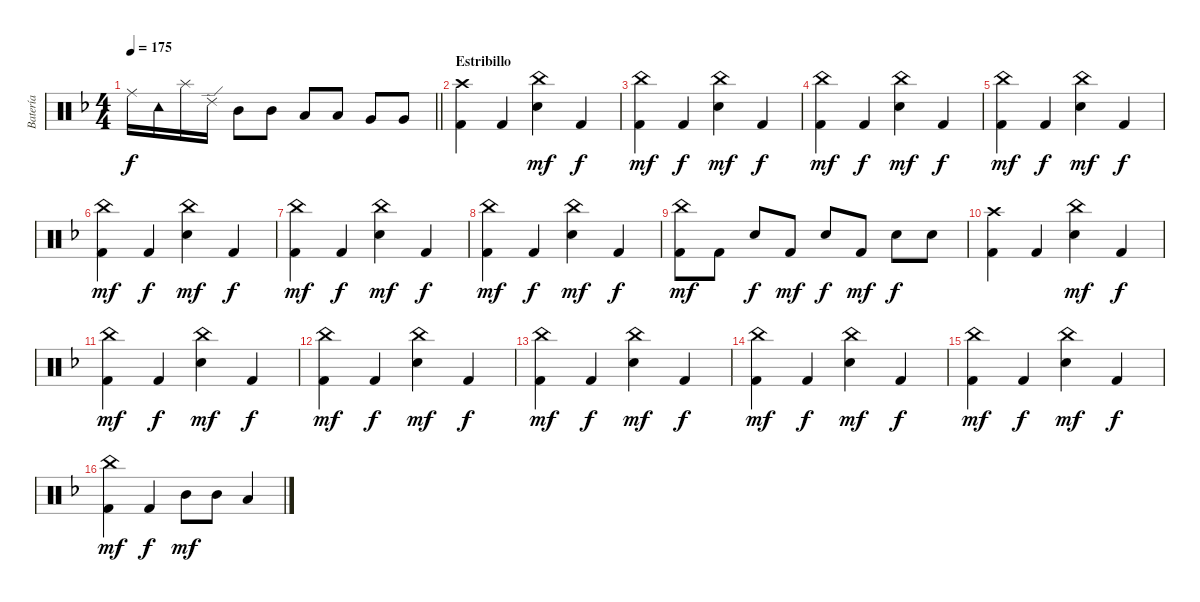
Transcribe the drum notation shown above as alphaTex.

\track ("Batería" "Batería") {instrument percussion}
\staff {score}
\articulation defaults
\ts (4 4)
\tempo 175
\clef neutral
\barLineRight lightlight
\ks dminor "Ride (middle)".16{dy f} "Tambourine (hit)".16 "Splash (hit)".16 "Ride (edge) 2".16 "Mid Tom (hit)".8 "Mid Tom (hit)".8 "Low Tom (hit)".8 "Low Tom (hit)".8 "Very Low Tom (hit)".8 "Very Low Tom (hit)".8
|
\section ("" "Estribillo")
("Crash high (hit)" "Kick (hit) 2").4 "Kick (hit) 2".4 ("China (hit)" "Snare (hit) 2").4{dy mf} "Kick (hit) 2".4{dy f} |
("China (hit)" "Kick (hit) 2").4{dy mf} "Kick (hit) 2".4{dy f} ("China (hit)" "Snare (hit) 2").4{dy mf} "Kick (hit) 2".4{dy f} |
("China (hit)" "Kick (hit) 2").4{dy mf} "Kick (hit) 2".4{dy f} ("China (hit)" "Snare (hit) 2").4{dy mf} "Kick (hit) 2".4{dy f} |
("China (hit)" "Kick (hit) 2").4{dy mf} "Kick (hit) 2".4{dy f} ("China (hit)" "Snare (hit) 2").4{dy mf} "Kick (hit) 2".4{dy f} |
("China (hit)" "Kick (hit) 2").4{dy mf} "Kick (hit) 2".4{dy f} ("China (hit)" "Snare (hit) 2").4{dy mf} "Kick (hit) 2".4{dy f} |
("China (hit)" "Kick (hit) 2").4{dy mf} "Kick (hit) 2".4{dy f} ("China (hit)" "Snare (hit) 2").4{dy mf} "Kick (hit) 2".4{dy f} |
("China (hit)" "Kick (hit) 2").4{dy mf} "Kick (hit) 2".4{dy f} ("China (hit)" "Snare (hit) 2").4{dy mf} "Kick (hit) 2".4{dy f} |
("China (hit)" "Kick (hit) 2").8{dy mf} "Kick (hit) 2".8 "Snare (hit) 2".8{dy f} "Kick (hit) 2".8{dy mf} "Snare (hit) 2".8{dy f} "Kick (hit) 2".8{dy mf} "Snare (hit) 2".8{dy f} "Snare (hit) 2".8 |
("Crash high (hit)" "Kick (hit) 2").4 "Kick (hit) 2".4 ("China (hit)" "Snare (hit) 2").4{dy mf} "Kick (hit) 2".4{dy f} |
("China (hit)" "Kick (hit) 2").4{dy mf} "Kick (hit) 2".4{dy f} ("China (hit)" "Snare (hit) 2").4{dy mf} "Kick (hit) 2".4{dy f} |
("China (hit)" "Kick (hit) 2").4{dy mf} "Kick (hit) 2".4{dy f} ("China (hit)" "Snare (hit) 2").4{dy mf} "Kick (hit) 2".4{dy f} |
("China (hit)" "Kick (hit) 2").4{dy mf} "Kick (hit) 2".4{dy f} ("China (hit)" "Snare (hit) 2").4{dy mf} "Kick (hit) 2".4{dy f} |
("China (hit)" "Kick (hit) 2").4{dy mf} "Kick (hit) 2".4{dy f} ("China (hit)" "Snare (hit) 2").4{dy mf} "Kick (hit) 2".4{dy f} |
("China (hit)" "Kick (hit) 2").4{dy mf} "Kick (hit) 2".4{dy f} ("China (hit)" "Snare (hit) 2").4{dy mf} "Kick (hit) 2".4{dy f} |
("China (hit)" "Kick (hit) 2").4{dy mf} "Kick (hit) 2".4{dy f} "Mid Tom (hit)".8{dy mf} "Mid Tom (hit)".8 "Low Tom (hit)".4
